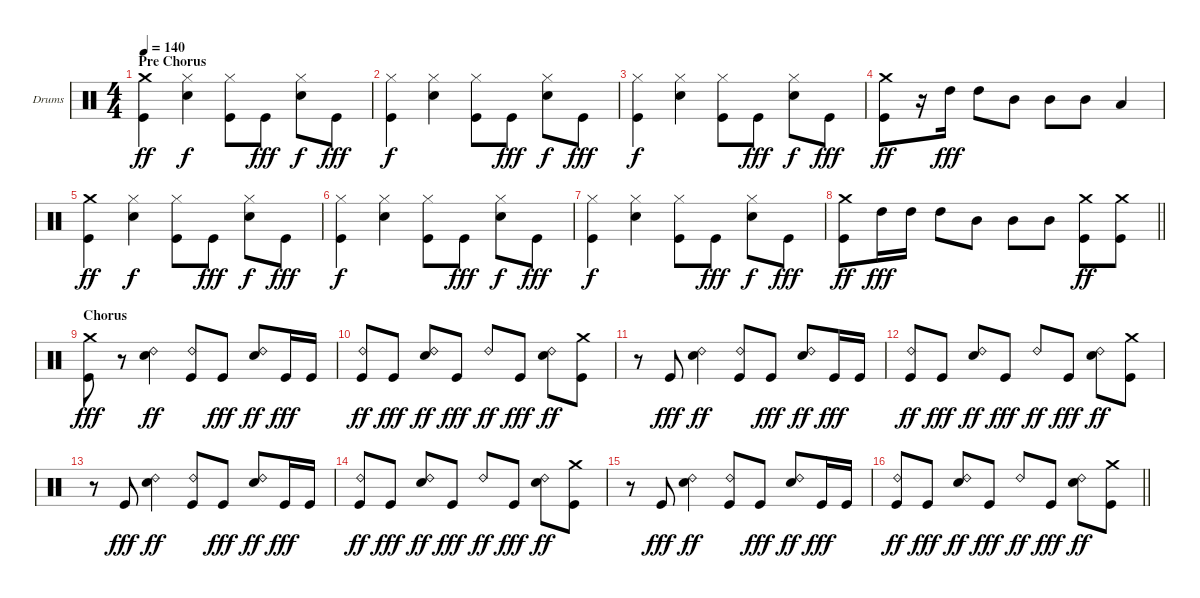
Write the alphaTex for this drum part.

\bracketExtendMode groupsimilarinstruments
\firstSystemTrackNameOrientation horizontal
\otherSystemsTrackNameOrientation horizontal
\track ("Drumkit" "Drums") {instrument percussion}
\staff {score}
\articulation defaults
\ts (4 4)
\beaming (8 2 2 2 2)
\section ("" "Pre Chorus")
\tempo 140
\clef neutral
\ks c
("Crash medium (hit)" "Kick (hit)").4{dy ff} ("Hi-Hat (closed)" "Snare (hit) 2").4{dy f} ("Hi-Hat (closed)" "Kick (hit)").8 "Kick (hit)".8{dy fff} ("Hi-Hat (closed)" "Snare (hit) 2").8{dy f} "Kick (hit)".8{dy fff} |
("Hi-Hat (closed)" "Kick (hit)").4{dy f} ("Hi-Hat (closed)" "Snare (hit) 2").4 ("Hi-Hat (closed)" "Kick (hit)").8 "Kick (hit)".8{dy fff} ("Hi-Hat (closed)" "Snare (hit) 2").8{dy f} "Kick (hit)".8{dy fff} |
("Hi-Hat (closed)" "Kick (hit)").4{dy f} ("Hi-Hat (closed)" "Snare (hit) 2").4 ("Hi-Hat (closed)" "Kick (hit)").8 "Kick (hit)".8{dy fff} ("Hi-Hat (closed)" "Snare (hit) 2").8{dy f} "Kick (hit)".8{dy fff} |
("Crash medium (hit)" "Kick (hit)").8{dy ff} r.16 "High Tom (hit)".16{dy fff} "High Tom (hit)".8 "Mid Tom (hit)".8 "Mid Tom (hit)".8 "Mid Tom (hit)".8 "Low Tom (hit)".4 |
("Crash medium (hit)" "Kick (hit)").4{dy ff} ("Hi-Hat (closed)" "Snare (hit) 2").4{dy f} ("Hi-Hat (closed)" "Kick (hit)").8 "Kick (hit)".8{dy fff} ("Hi-Hat (closed)" "Snare (hit) 2").8{dy f} "Kick (hit)".8{dy fff} |
("Hi-Hat (closed)" "Kick (hit)").4{dy f} ("Hi-Hat (closed)" "Snare (hit) 2").4 ("Hi-Hat (closed)" "Kick (hit)").8 "Kick (hit)".8{dy fff} ("Hi-Hat (closed)" "Snare (hit) 2").8{dy f} "Kick (hit)".8{dy fff} |
("Hi-Hat (closed)" "Kick (hit)").4{dy f} ("Hi-Hat (closed)" "Snare (hit) 2").4 ("Hi-Hat (closed)" "Kick (hit)").8 "Kick (hit)".8{dy fff} ("Hi-Hat (closed)" "Snare (hit) 2").8{dy f} "Kick (hit)".8{dy fff} |
\barLineRight lightlight
("Crash medium (hit)" "Kick (hit)").8{dy ff} "High Tom (hit)".16{dy fff} "High Tom (hit)".16 "High Tom (hit)".8 "Mid Tom (hit)".8 "Mid Tom (hit)".8 "Mid Tom (hit)".8 ("Crash medium (hit)" "Kick (hit)").8{dy ff} ("Crash medium (hit)" "Kick (hit)").8 |
\section ("" "Chorus")
("Crash medium (hit)" "Kick (hit)").8{dy fff} r.8 ("Ride (bell) 2" "Snare (hit) 2").4{dy ff} ("Ride (bell) 2" "Kick (hit)").8 "Kick (hit)".8{dy fff} ("Ride (bell) 2" "Snare (hit) 2").8{dy ff} "Kick (hit)".16{dy fff} "Kick (hit)".16 |
("Ride (bell) 2" "Kick (hit)").8{dy ff} "Kick (hit)".8{dy fff} ("Ride (bell) 2" "Snare (hit) 2").8{dy ff} "Kick (hit)".8{dy fff} "Ride (bell) 2".8{dy ff} "Kick (hit)".8{dy fff} ("Ride (bell) 2" "Snare (hit) 2").8{dy ff} ("Crash medium (hit)" "Kick (hit)").8 |
r.8 "Kick (hit)".8{dy fff} ("Ride (bell) 2" "Snare (hit) 2").4{dy ff} ("Ride (bell) 2" "Kick (hit)").8 "Kick (hit)".8{dy fff} ("Ride (bell) 2" "Snare (hit) 2").8{dy ff} "Kick (hit)".16{dy fff} "Kick (hit)".16 |
("Ride (bell) 2" "Kick (hit)").8{dy ff} "Kick (hit)".8{dy fff} ("Ride (bell) 2" "Snare (hit) 2").8{dy ff} "Kick (hit)".8{dy fff} "Ride (bell) 2".8{dy ff} "Kick (hit)".8{dy fff} ("Ride (bell) 2" "Snare (hit) 2").8{dy ff} ("Crash medium (hit)" "Kick (hit)").8 |
r.8 "Kick (hit)".8{dy fff} ("Ride (bell) 2" "Snare (hit) 2").4{dy ff} ("Ride (bell) 2" "Kick (hit)").8 "Kick (hit)".8{dy fff} ("Ride (bell) 2" "Snare (hit) 2").8{dy ff} "Kick (hit)".16{dy fff} "Kick (hit)".16 |
("Ride (bell) 2" "Kick (hit)").8{dy ff} "Kick (hit)".8{dy fff} ("Ride (bell) 2" "Snare (hit) 2").8{dy ff} "Kick (hit)".8{dy fff} "Ride (bell) 2".8{dy ff} "Kick (hit)".8{dy fff} ("Ride (bell) 2" "Snare (hit) 2").8{dy ff} ("Crash medium (hit)" "Kick (hit)").8 |
r.8 "Kick (hit)".8{dy fff} ("Ride (bell) 2" "Snare (hit) 2").4{dy ff} ("Ride (bell) 2" "Kick (hit)").8 "Kick (hit)".8{dy fff} ("Ride (bell) 2" "Snare (hit) 2").8{dy ff} "Kick (hit)".16{dy fff} "Kick (hit)".16 |
\barLineRight lightlight
("Ride (bell) 2" "Kick (hit)").8{dy ff} "Kick (hit)".8{dy fff} ("Ride (bell) 2" "Snare (hit) 2").8{dy ff} "Kick (hit)".8{dy fff} "Ride (bell) 2".8{dy ff} "Kick (hit)".8{dy fff} ("Ride (bell) 2" "Snare (hit) 2").8{dy ff} ("Crash medium (hit)" "Kick (hit)").8
